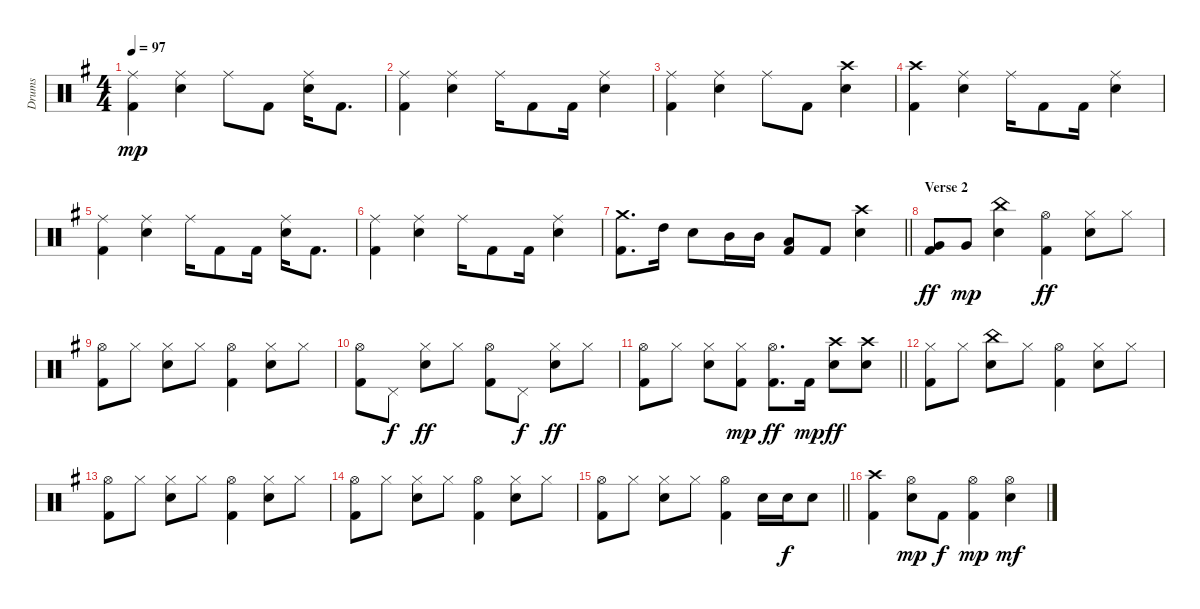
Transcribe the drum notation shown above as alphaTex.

\track ("Drums" "Drums") {instrument percussion}
\staff {score}
\articulation defaults
\ts (4 4)
\tempo 97
\clef neutral
\ks g
("Ride (middle)" "Kick (hit) 2").4{dy mp} ("Ride (middle)" "Electric Snare (hit)").4 "Ride (middle)".8 "Kick (hit) 2".8 ("Ride (middle)" "Electric Snare (hit)").16 "Kick (hit) 2".8{d} |
("Ride (middle)" "Kick (hit) 2").4 ("Ride (middle)" "Electric Snare (hit)").4 "Ride (middle)".16 "Kick (hit) 2".8 "Kick (hit) 2".16 ("Ride (middle)" "Electric Snare (hit)").4 |
("Ride (middle)" "Kick (hit) 2").4 ("Ride (middle)" "Electric Snare (hit)").4 "Ride (middle)".8 "Kick (hit) 2".8 ("Electric Snare (hit)" "Crash high (hit)").4 |
("Crash high (hit)" "Kick (hit) 2").4 ("Ride (middle)" "Electric Snare (hit)").4 "Ride (middle)".16 "Kick (hit) 2".8 "Kick (hit) 2".16 ("Ride (middle)" "Electric Snare (hit)").4 |
("Ride (middle)" "Kick (hit) 2").4 ("Ride (middle)" "Electric Snare (hit)").4 "Ride (middle)".16 "Kick (hit) 2".8 "Kick (hit) 2".16 ("Ride (middle)" "Electric Snare (hit)").16 "Kick (hit) 2".8{d} |
("Ride (middle)" "Kick (hit) 2").4 ("Ride (middle)" "Electric Snare (hit)").4 "Ride (middle)".16 "Kick (hit) 2".8 "Kick (hit) 2".16 ("Ride (middle)" "Electric Snare (hit)").4 |
\barLineRight lightlight
("Kick (hit) 2" "Crash medium (hit)").8{d} "High Tom (hit)".16 "Electric Snare (hit)".8 "Mid Tom (hit)".16 "Mid Tom (hit)".16 ("Kick (hit) 2" "Low Tom (hit)").8 "Kick (hit) 2".8 ("Electric Snare (hit)" "Crash high (hit)").4 |
\section ("" "Verse 2")
("Very Low Tom (hit)" "Kick (hit) 2").8{dy ff} "Very Low Tom (hit)".8{dy mp} ("Electric Snare (hit)" "China (hit)").4 ("Kick (hit) 2" "Hi-Hat (open)").4{dy ff} ("Electric Snare (hit)" "Hi-Hat (closed)").8 "Hi-Hat (closed)".8 |
("Hi-Hat (open)" "Kick (hit) 2").8 "Hi-Hat (closed)".8 ("Electric Snare (hit)" "Hi-Hat (closed)").8 "Hi-Hat (closed)".8 ("Hi-Hat (open)" "Kick (hit) 2").4 ("Hi-Hat (closed)" "Electric Snare (hit)").8 "Hi-Hat (closed)".8 |
("Hi-Hat (open)" "Kick (hit) 2").8 "Pedal Hi-Hat (hit)".8{dy f} ("Electric Snare (hit)" "Hi-Hat (closed)").8{dy ff} "Hi-Hat (closed)".8 ("Hi-Hat (open)" "Kick (hit) 2").8 "Pedal Hi-Hat (hit)".8{dy f} ("Hi-Hat (closed)" "Electric Snare (hit)").8{dy ff} "Hi-Hat (closed)".8 |
\barLineRight lightlight
("Hi-Hat (open)" "Kick (hit) 2").8 "Hi-Hat (closed)".8 ("Electric Snare (hit)" "Hi-Hat (closed)").8 ("Hi-Hat (closed)" "Kick (hit) 2").8{dy mp} ("Hi-Hat (open)" "Kick (hit) 2").8{d dy ff} "Kick (hit) 2".16{dy mp} ("Crash high (hit)" "Electric Snare (hit)").8{dy ff} ("Crash high (hit)" "Electric Snare (hit)").8 |
("Hi-Hat (closed)" "Kick (hit) 2").8 "Hi-Hat (closed)".8 ("Electric Snare (hit)" "China (hit)").8 "Hi-Hat (closed)".8 ("Hi-Hat (open)" "Kick (hit) 2").4 ("Hi-Hat (closed)" "Electric Snare (hit)").8 "Hi-Hat (closed)".8 |
("Hi-Hat (open)" "Kick (hit) 2").8 "Hi-Hat (closed)".8 ("Electric Snare (hit)" "Hi-Hat (closed)").8 "Hi-Hat (closed)".8 ("Hi-Hat (open)" "Kick (hit) 2").4 ("Hi-Hat (closed)" "Electric Snare (hit)").8 "Hi-Hat (closed)".8 |
("Hi-Hat (open)" "Kick (hit) 2").8 "Hi-Hat (closed)".8 ("Electric Snare (hit)" "Hi-Hat (closed)").8 "Hi-Hat (closed)".8 ("Hi-Hat (open)" "Kick (hit) 2").4 ("Hi-Hat (closed)" "Electric Snare (hit)").8 "Hi-Hat (closed)".8 |
\barLineRight lightlight
("Hi-Hat (open)" "Kick (hit) 2").8 "Hi-Hat (closed)".8 ("Electric Snare (hit)" "Hi-Hat (closed)").8 "Hi-Hat (closed)".8 ("Hi-Hat (open)" "Kick (hit) 2").4 "Electric Snare (hit)".16 "Electric Snare (hit)".16{dy f} "Electric Snare (hit)".8 |
("Crash high (hit)" "Kick (hit) 2").4 ("Hi-Hat (open)" "Electric Snare (hit)").8{dy mp} "Kick (hit) 2".8{dy f} ("Hi-Hat (open)" "Kick (hit) 2").4{dy mp} ("Hi-Hat (open)" "Electric Snare (hit)").4{dy mf}
